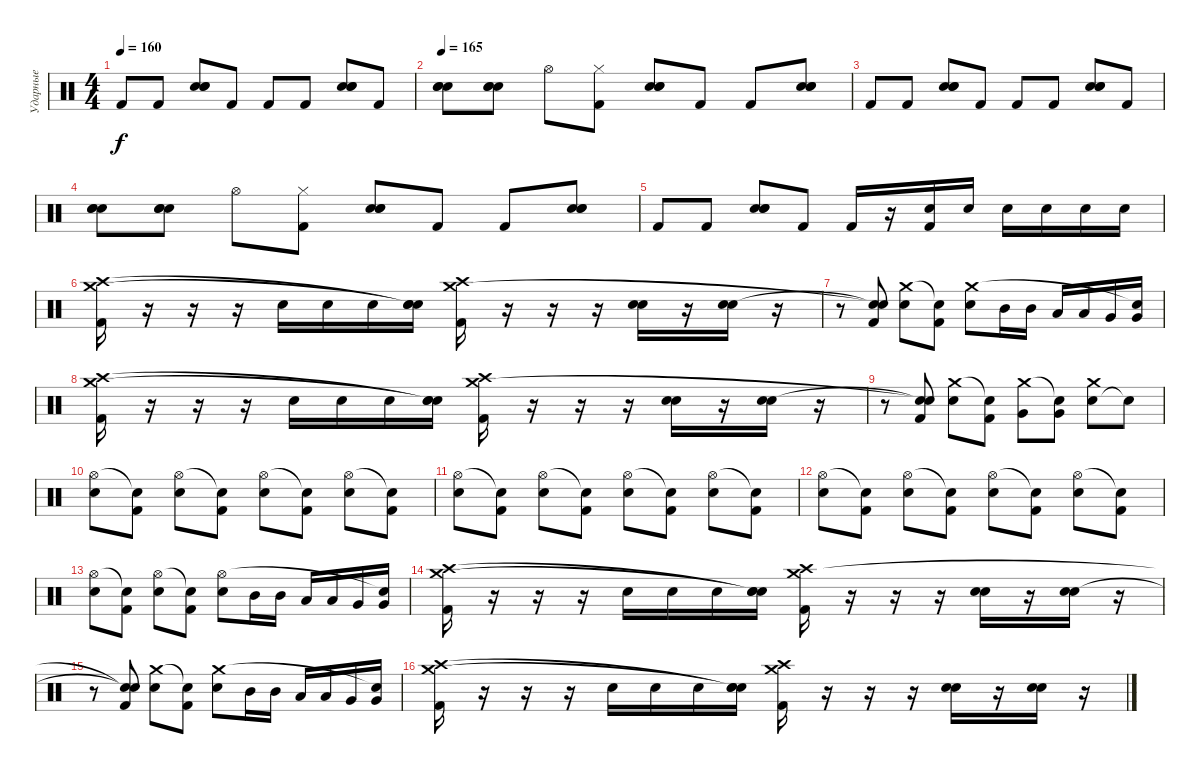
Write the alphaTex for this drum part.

\track ("Ударные" "Ударные") {instrument percussion}
\staff {score}
\articulation defaults
\ts (4 4)
\tempo 160
\clef neutral
\ks c "Kick (hit) 2".8{dy f} "Kick (hit) 2".8
("Electric Snare (hit)" "Electric Snare (hit)" "Electric Snare (hit)").8{bu 120} "Kick (hit) 2".8 "Kick (hit) 2".8 "Kick (hit) 2".8 ("Electric Snare (hit)" "Electric Snare (hit)" "Electric Snare (hit)").8{bu 120} "Kick (hit) 2".8 |
\tempo 165
("Electric Snare (hit)" "Electric Snare (hit)" "Electric Snare (hit)").8{bu 120} ("Electric Snare (hit)" "Electric Snare (hit)" "Electric Snare (hit)").8{bu 120} "Hi-Hat (open)".8 ("Hi-Hat (closed)" "Kick (hit) 2").8 ("Electric Snare (hit)" "Electric Snare (hit)" "Electric Snare (hit)").8{bu 120} "Kick (hit) 2".8 "Kick (hit) 2".8 ("Electric Snare (hit)" "Electric Snare (hit)" "Electric Snare (hit)").8{bu 120} |
"Kick (hit) 2".8 "Kick (hit) 2".8 ("Electric Snare (hit)" "Electric Snare (hit)" "Electric Snare (hit)").8{bu 120} "Kick (hit) 2".8 "Kick (hit) 2".8 "Kick (hit) 2".8 ("Electric Snare (hit)" "Electric Snare (hit)" "Electric Snare (hit)").8{bu 120} "Kick (hit) 2".8 |
("Electric Snare (hit)" "Electric Snare (hit)" "Electric Snare (hit)").8{bu 120} ("Electric Snare (hit)" "Electric Snare (hit)" "Electric Snare (hit)").8{bu 120} "Hi-Hat (open)".8 ("Hi-Hat (closed)" "Kick (hit) 2").8 ("Electric Snare (hit)" "Electric Snare (hit)" "Electric Snare (hit)").8{bu 120} "Kick (hit) 2".8 "Kick (hit) 2".8 ("Electric Snare (hit)" "Electric Snare (hit)" "Electric Snare (hit)").8{bu 120} |
"Kick (hit) 2".8 "Kick (hit) 2".8 ("Electric Snare (hit)" "Electric Snare (hit)" "Electric Snare (hit)").8{bu 120} "Kick (hit) 2".8 "Kick (hit) 2".16 r.16 ("Electric Snare (hit)" "Kick (hit) 2").16 "Electric Snare (hit)".16 "Electric Snare (hit)".16 "Electric Snare (hit)".16 "Electric Snare (hit)".16 "Electric Snare (hit)".16 |
("Kick (hit) 2" "Crash high (hit)" "Crash medium (hit)").16 r.16 r.16 r.16 "Electric Snare (hit)".16 "Electric Snare (hit)".16 "Electric Snare (hit)".16 ("Electric Snare (hit)" "Snare (hit)"{t} "Snare (hit)"{t}).16 ("Kick (hit) 2" "Crash high (hit)" "Crash medium (hit)").16 r.16 r.16 r.16 ("Electric Snare (hit)" "Electric Snare (hit)").16{bu 120} r.16 ("Electric Snare (hit)" "Electric Snare (hit)").16{bu 120} r.16 |
r.8 ("Kick (hit) 2" "Snare (hit)"{t} "Snare (hit)"{t}).8 ("Electric Snare (hit)" "Crash medium (hit)").8 ("Kick (hit) 2" "Snare (hit)"{t}).8 ("Electric Snare (hit)" "Crash medium (hit)").8 "Mid Tom (hit)".16 "Mid Tom (hit)".16 "Low Tom (hit)".16 "Low Tom (hit)".16 "Very Low Tom (hit)".16 ("Very Low Tom (hit)" "Snare (hit)"{t}).16 |
("Kick (hit) 2" "Crash high (hit)" "Crash medium (hit)").16 r.16 r.16 r.16 "Electric Snare (hit)".16 "Electric Snare (hit)".16 "Electric Snare (hit)".16 ("Electric Snare (hit)" "Snare (hit)"{t} "Snare (hit)"{t}).16 ("Kick (hit) 2" "Crash high (hit)" "Crash medium (hit)").16 r.16 r.16 r.16 ("Electric Snare (hit)" "Electric Snare (hit)").16{bu 120} r.16 ("Electric Snare (hit)" "Electric Snare (hit)").16{bu 120} r.16 |
r.8 ("Kick (hit) 2" "Snare (hit)"{t} "Snare (hit)"{t}).8 ("Electric Snare (hit)" "Crash medium (hit)").8 ("Kick (hit) 2" "Snare (hit)"{t}).8 ("Very Low Tom (hit)" "Crash medium (hit)").8 ("Very Low Tom (hit)" "Snare (hit)"{t}).8 ("Electric Snare (hit)" "Crash medium (hit)").8 "Snare (hit)"{t}.8 |
("Electric Snare (hit)" "Hi-Hat (open)").8 ("Kick (hit) 2" "Snare (hit)"{t}).8 ("Electric Snare (hit)" "Hi-Hat (open)").8 ("Kick (hit) 2" "Snare (hit)"{t}).8 ("Electric Snare (hit)" "Hi-Hat (open)").8 ("Kick (hit) 2" "Snare (hit)"{t}).8 ("Electric Snare (hit)" "Hi-Hat (open)").8 ("Kick (hit) 2" "Snare (hit)"{t}).8 |
("Electric Snare (hit)" "Hi-Hat (open)").8 ("Kick (hit) 2" "Snare (hit)"{t}).8 ("Electric Snare (hit)" "Hi-Hat (open)").8 ("Kick (hit) 2" "Snare (hit)"{t}).8 ("Electric Snare (hit)" "Hi-Hat (open)").8 ("Kick (hit) 2" "Snare (hit)"{t}).8 ("Electric Snare (hit)" "Hi-Hat (open)").8 ("Kick (hit) 2" "Snare (hit)"{t}).8 |
("Electric Snare (hit)" "Hi-Hat (open)").8 ("Kick (hit) 2" "Snare (hit)"{t}).8 ("Electric Snare (hit)" "Hi-Hat (open)").8 ("Kick (hit) 2" "Snare (hit)"{t}).8 ("Electric Snare (hit)" "Hi-Hat (open)").8 ("Kick (hit) 2" "Snare (hit)"{t}).8 ("Electric Snare (hit)" "Hi-Hat (open)").8 ("Kick (hit) 2" "Snare (hit)"{t}).8 |
("Electric Snare (hit)" "Hi-Hat (open)").8 ("Kick (hit) 2" "Snare (hit)"{t}).8 ("Electric Snare (hit)" "Hi-Hat (open)").8 ("Kick (hit) 2" "Snare (hit)"{t}).8 ("Electric Snare (hit)" "Hi-Hat (open)").8 "Mid Tom (hit)".16 "Mid Tom (hit)".16 "Low Tom (hit)".16 "Low Tom (hit)".16 "Very Low Tom (hit)".16 ("Very Low Tom (hit)" "Snare (hit)"{t}).16 |
("Kick (hit) 2" "Crash high (hit)" "Crash medium (hit)").16 r.16 r.16 r.16 "Electric Snare (hit)".16 "Electric Snare (hit)".16 "Electric Snare (hit)".16 ("Electric Snare (hit)" "Snare (hit)"{t} "Snare (hit)"{t}).16 ("Kick (hit) 2" "Crash high (hit)" "Crash medium (hit)").16 r.16 r.16 r.16 ("Electric Snare (hit)" "Electric Snare (hit)").16{bu 120} r.16 ("Electric Snare (hit)" "Electric Snare (hit)").16{bu 120} r.16 |
r.8 ("Kick (hit) 2" "Snare (hit)"{t} "Snare (hit)"{t}).8 ("Electric Snare (hit)" "Crash medium (hit)").8 ("Kick (hit) 2" "Snare (hit)"{t}).8 ("Electric Snare (hit)" "Crash medium (hit)").8 "Mid Tom (hit)".16 "Mid Tom (hit)".16 "Low Tom (hit)".16 "Low Tom (hit)".16 "Very Low Tom (hit)".16 ("Very Low Tom (hit)" "Snare (hit)"{t}).16 |
("Kick (hit) 2" "Crash high (hit)" "Crash medium (hit)").16 r.16 r.16 r.16 "Electric Snare (hit)".16 "Electric Snare (hit)".16 "Electric Snare (hit)".16 ("Electric Snare (hit)" "Snare (hit)"{t} "Snare (hit)"{t}).16 ("Kick (hit) 2" "Crash high (hit)" "Crash medium (hit)").16 r.16 r.16 r.16 ("Electric Snare (hit)" "Electric Snare (hit)").16{bu 120} r.16 ("Electric Snare (hit)" "Electric Snare (hit)").16{bu 120} r.16
